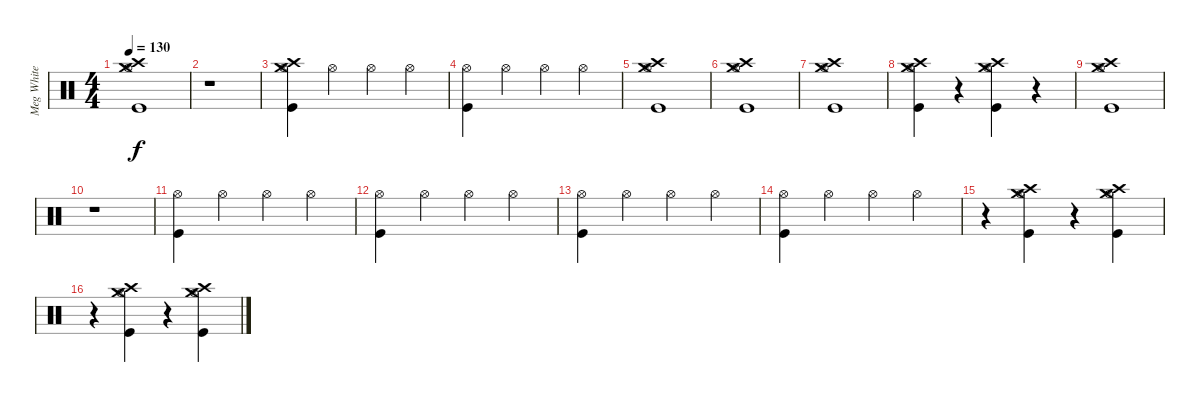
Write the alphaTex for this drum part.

\track ("Meg White" "Meg White") {instrument percussion}
\staff {score}
\articulation defaults
\ts (4 4)
\tempo 130
\clef neutral
\ks c
("Hi-Hat (open)" "Crash medium (hit)" "Crash high (hit)" "Kick (hit)").1{dy f} |
r.1 |
("Hi-Hat (open)" "Crash medium (hit)" "Crash high (hit)" "Kick (hit)").4 "Hi-Hat (open)".4 "Hi-Hat (open)".4 "Hi-Hat (open)".4 |
("Hi-Hat (open)" "Kick (hit)").4 "Hi-Hat (open)".4 "Hi-Hat (open)".4 "Hi-Hat (open)".4 |
("Hi-Hat (open)" "Crash medium (hit)" "Crash high (hit)" "Kick (hit)").1 |
("Hi-Hat (open)" "Crash medium (hit)" "Crash high (hit)" "Kick (hit)").1 |
("Hi-Hat (open)" "Crash medium (hit)" "Crash high (hit)" "Kick (hit)").1 |
("Hi-Hat (open)" "Crash medium (hit)" "Crash high (hit)" "Kick (hit)").4 r.4 ("Hi-Hat (open)" "Crash medium (hit)" "Crash high (hit)" "Kick (hit)").4 r.4 |
("Hi-Hat (open)" "Crash medium (hit)" "Crash high (hit)" "Kick (hit)").1 |
r.1 |
("Hi-Hat (open)" "Kick (hit)").4 "Hi-Hat (open)".4 "Hi-Hat (open)".4 "Hi-Hat (open)".4 |
("Hi-Hat (open)" "Kick (hit)").4 "Hi-Hat (open)".4 "Hi-Hat (open)".4 "Hi-Hat (open)".4 |
("Hi-Hat (open)" "Kick (hit)").4 "Hi-Hat (open)".4 "Hi-Hat (open)".4 "Hi-Hat (open)".4 |
("Hi-Hat (open)" "Kick (hit)").4 "Hi-Hat (open)".4 "Hi-Hat (open)".4 "Hi-Hat (open)".4 |
r.4 ("Hi-Hat (open)" "Crash medium (hit)" "Crash high (hit)" "Kick (hit)").4 r.4 ("Hi-Hat (open)" "Crash medium (hit)" "Crash high (hit)" "Kick (hit)").4 |
r.4 ("Hi-Hat (open)" "Crash medium (hit)" "Crash high (hit)" "Kick (hit)").4 r.4 ("Hi-Hat (open)" "Crash medium (hit)" "Crash high (hit)" "Kick (hit)").4
